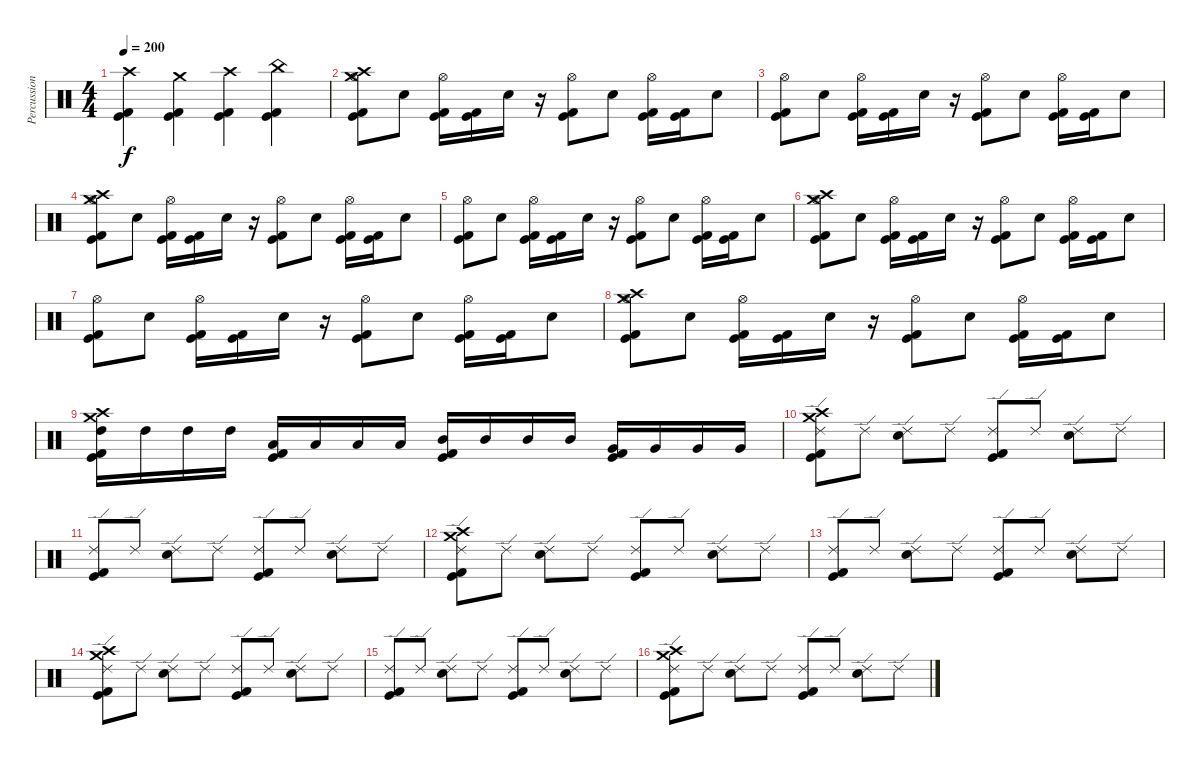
\track ("Percussion" "Percussion") {instrument percussion}
\staff {score}
\articulation defaults
\ts (4 4)
\tempo 200
\clef neutral
\ks c
("Crash high (hit)" "Kick (hit)" "Kick (hit) 2").4{dy f} ("Crash medium (hit)" "Kick (hit)" "Kick (hit) 2").4 ("Crash high (hit)" "Kick (hit)" "Kick (hit) 2").4 ("China (hit)" "Kick (hit)" "Kick (hit) 2").4 |
("Crash medium (hit)" "Crash high (hit)" "Hi-Hat (open)" "Kick (hit)" "Kick (hit) 2").8 "Electric Snare (hit)".8 ("Hi-Hat (open)" "Kick (hit)" "Kick (hit) 2").16 ("Kick (hit)" "Kick (hit) 2").16 "Electric Snare (hit)".16 r.16 ("Hi-Hat (open)" "Kick (hit)" "Kick (hit) 2").8 "Electric Snare (hit)".8 ("Hi-Hat (open)" "Kick (hit)" "Kick (hit) 2").16 ("Kick (hit)" "Kick (hit) 2").16 "Electric Snare (hit)".8 |
("Hi-Hat (open)" "Kick (hit)" "Kick (hit) 2").8 "Electric Snare (hit)".8 ("Hi-Hat (open)" "Kick (hit)" "Kick (hit) 2").16 ("Kick (hit)" "Kick (hit) 2").16 "Electric Snare (hit)".16 r.16 ("Hi-Hat (open)" "Kick (hit)" "Kick (hit) 2").8 "Electric Snare (hit)".8 ("Hi-Hat (open)" "Kick (hit)" "Kick (hit) 2").16 ("Kick (hit)" "Kick (hit) 2").16 "Electric Snare (hit)".8 |
("Crash medium (hit)" "Crash high (hit)" "Hi-Hat (open)" "Kick (hit)" "Kick (hit) 2").8 "Electric Snare (hit)".8 ("Hi-Hat (open)" "Kick (hit)" "Kick (hit) 2").16 ("Kick (hit)" "Kick (hit) 2").16 "Electric Snare (hit)".16 r.16 ("Hi-Hat (open)" "Kick (hit)" "Kick (hit) 2").8 "Electric Snare (hit)".8 ("Hi-Hat (open)" "Kick (hit)" "Kick (hit) 2").16 ("Kick (hit)" "Kick (hit) 2").16 "Electric Snare (hit)".8 |
("Hi-Hat (open)" "Kick (hit)" "Kick (hit) 2").8 "Electric Snare (hit)".8 ("Hi-Hat (open)" "Kick (hit)" "Kick (hit) 2").16 ("Kick (hit)" "Kick (hit) 2").16 "Electric Snare (hit)".16 r.16 ("Hi-Hat (open)" "Kick (hit)" "Kick (hit) 2").8 "Electric Snare (hit)".8 ("Hi-Hat (open)" "Kick (hit)" "Kick (hit) 2").16 ("Kick (hit)" "Kick (hit) 2").16 "Electric Snare (hit)".8 |
("Crash medium (hit)" "Crash high (hit)" "Hi-Hat (open)" "Kick (hit)" "Kick (hit) 2").8 "Electric Snare (hit)".8 ("Hi-Hat (open)" "Kick (hit)" "Kick (hit) 2").16 ("Kick (hit)" "Kick (hit) 2").16 "Electric Snare (hit)".16 r.16 ("Hi-Hat (open)" "Kick (hit)" "Kick (hit) 2").8 "Electric Snare (hit)".8 ("Hi-Hat (open)" "Kick (hit)" "Kick (hit) 2").16 ("Kick (hit)" "Kick (hit) 2").16 "Electric Snare (hit)".8 |
("Hi-Hat (open)" "Kick (hit)" "Kick (hit) 2").8 "Electric Snare (hit)".8 ("Hi-Hat (open)" "Kick (hit)" "Kick (hit) 2").16 ("Kick (hit)" "Kick (hit) 2").16 "Electric Snare (hit)".16 r.16 ("Hi-Hat (open)" "Kick (hit)" "Kick (hit) 2").8 "Electric Snare (hit)".8 ("Hi-Hat (open)" "Kick (hit)" "Kick (hit) 2").16 ("Kick (hit)" "Kick (hit) 2").16 "Electric Snare (hit)".8 |
("Crash medium (hit)" "Crash high (hit)" "Hi-Hat (open)" "Kick (hit)" "Kick (hit) 2").8 "Electric Snare (hit)".8 ("Hi-Hat (open)" "Kick (hit)" "Kick (hit) 2").16 ("Kick (hit)" "Kick (hit) 2").16 "Electric Snare (hit)".16 r.16 ("Hi-Hat (open)" "Kick (hit)" "Kick (hit) 2").8 "Electric Snare (hit)".8 ("Hi-Hat (open)" "Kick (hit)" "Kick (hit) 2").16 ("Kick (hit)" "Kick (hit) 2").16 "Electric Snare (hit)".8 |
("Crash medium (hit)" "Crash high (hit)" "High Tom (hit)" "Kick (hit)" "Kick (hit) 2").16 "High Tom (hit)".16 "High Tom (hit)".16 "High Tom (hit)".16 ("Low Tom (hit)" "Kick (hit)" "Kick (hit) 2").16 "Low Tom (hit)".16 "Low Tom (hit)".16 "Low Tom (hit)".16 ("Mid Tom (hit)" "Kick (hit)" "Kick (hit) 2").16 "Mid Tom (hit)".16 "Mid Tom (hit)".16 "Mid Tom (hit)".16 ("Very Low Tom (hit)" "Kick (hit)" "Kick (hit) 2").16 "Very Low Tom (hit)".16 "Very Low Tom (hit)".16 "Very Low Tom (hit)".16 |
("Crash medium (hit)" "Crash high (hit)" "Ride (edge) 2" "Kick (hit)" "Kick (hit) 2").8 "Ride (edge) 2".8 ("Ride (edge) 2" "Electric Snare (hit)").8 "Ride (edge) 2".8 ("Ride (edge) 2" "Kick (hit)" "Kick (hit) 2").8 "Ride (edge) 2".8 ("Ride (edge) 2" "Electric Snare (hit)").8 "Ride (edge) 2".8 |
("Ride (edge) 2" "Kick (hit)" "Kick (hit) 2").8 "Ride (edge) 2".8 ("Ride (edge) 2" "Electric Snare (hit)").8 "Ride (edge) 2".8 ("Ride (edge) 2" "Kick (hit)" "Kick (hit) 2").8 "Ride (edge) 2".8 ("Ride (edge) 2" "Electric Snare (hit)").8 "Ride (edge) 2".8 |
("Crash medium (hit)" "Crash high (hit)" "Ride (edge) 2" "Kick (hit)" "Kick (hit) 2").8 "Ride (edge) 2".8 ("Ride (edge) 2" "Electric Snare (hit)").8 "Ride (edge) 2".8 ("Ride (edge) 2" "Kick (hit)" "Kick (hit) 2").8 "Ride (edge) 2".8 ("Ride (edge) 2" "Electric Snare (hit)").8 "Ride (edge) 2".8 |
("Ride (edge) 2" "Kick (hit)" "Kick (hit) 2").8 "Ride (edge) 2".8 ("Ride (edge) 2" "Electric Snare (hit)").8 "Ride (edge) 2".8 ("Ride (edge) 2" "Kick (hit)" "Kick (hit) 2").8 "Ride (edge) 2".8 ("Ride (edge) 2" "Electric Snare (hit)").8 "Ride (edge) 2".8 |
("Crash medium (hit)" "Crash high (hit)" "Ride (edge) 2" "Kick (hit)" "Kick (hit) 2").8 "Ride (edge) 2".8 ("Ride (edge) 2" "Electric Snare (hit)").8 "Ride (edge) 2".8 ("Ride (edge) 2" "Kick (hit)" "Kick (hit) 2").8 "Ride (edge) 2".8 ("Ride (edge) 2" "Electric Snare (hit)").8 "Ride (edge) 2".8 |
("Ride (edge) 2" "Kick (hit)" "Kick (hit) 2").8 "Ride (edge) 2".8 ("Ride (edge) 2" "Electric Snare (hit)").8 "Ride (edge) 2".8 ("Ride (edge) 2" "Kick (hit)" "Kick (hit) 2").8 "Ride (edge) 2".8 ("Ride (edge) 2" "Electric Snare (hit)").8 "Ride (edge) 2".8 |
("Crash medium (hit)" "Crash high (hit)" "Ride (edge) 2" "Kick (hit)" "Kick (hit) 2").8 "Ride (edge) 2".8 ("Ride (edge) 2" "Electric Snare (hit)").8 "Ride (edge) 2".8 ("Ride (edge) 2" "Kick (hit)" "Kick (hit) 2").8 "Ride (edge) 2".8 ("Ride (edge) 2" "Electric Snare (hit)").8 "Ride (edge) 2".8
